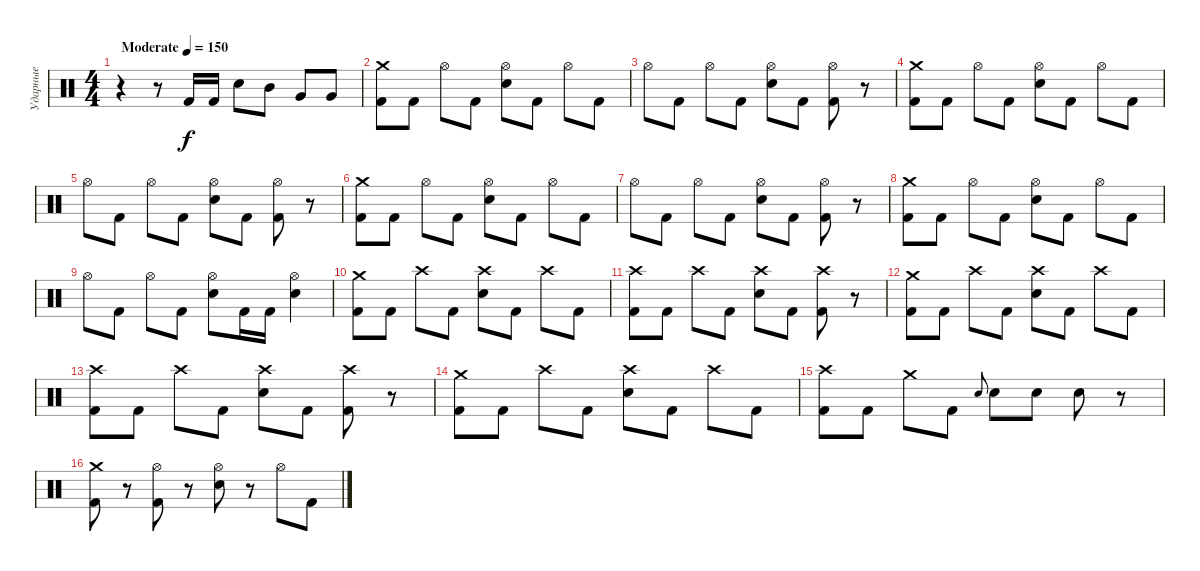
\track ("Ударные" "Ударные") {instrument percussion}
\staff {score}
\articulation defaults
\ts (4 4)
\tempo (150 "Moderate")
\clef neutral
\ks c
r.4{dy f} r.8 "Kick (hit) 2".16 "Kick (hit) 2".16 "Electric Snare (hit)".8 "Mid Tom (hit)".8 "Very Low Tom (hit)".8 "Very Low Tom (hit)".8 |
("Kick (hit) 2" "Crash medium (hit)").8 "Kick (hit) 2".8 "Hi-Hat (open)".8 "Kick (hit) 2".8 ("Electric Snare (hit)" "Hi-Hat (open)").8 "Kick (hit) 2".8 "Hi-Hat (open)".8 "Kick (hit) 2".8 |
"Hi-Hat (open)".8 "Kick (hit) 2".8 "Hi-Hat (open)".8 "Kick (hit) 2".8 ("Electric Snare (hit)" "Hi-Hat (open)").8 "Kick (hit) 2".8 ("Kick (hit) 2" "Hi-Hat (open)").8 r.8 |
("Kick (hit) 2" "Crash medium (hit)").8 "Kick (hit) 2".8 "Hi-Hat (open)".8 "Kick (hit) 2".8 ("Electric Snare (hit)" "Hi-Hat (open)").8 "Kick (hit) 2".8 "Hi-Hat (open)".8 "Kick (hit) 2".8 |
"Hi-Hat (open)".8 "Kick (hit) 2".8 "Hi-Hat (open)".8 "Kick (hit) 2".8 ("Electric Snare (hit)" "Hi-Hat (open)").8 "Kick (hit) 2".8 ("Kick (hit) 2" "Hi-Hat (open)").8 r.8 |
("Kick (hit) 2" "Crash medium (hit)").8 "Kick (hit) 2".8 "Hi-Hat (open)".8 "Kick (hit) 2".8 ("Electric Snare (hit)" "Hi-Hat (open)").8 "Kick (hit) 2".8 "Hi-Hat (open)".8 "Kick (hit) 2".8 |
"Hi-Hat (open)".8 "Kick (hit) 2".8 "Hi-Hat (open)".8 "Kick (hit) 2".8 ("Electric Snare (hit)" "Hi-Hat (open)").8 "Kick (hit) 2".8 ("Kick (hit) 2" "Hi-Hat (open)").8 r.8 |
("Kick (hit) 2" "Crash medium (hit)").8 "Kick (hit) 2".8 "Hi-Hat (open)".8 "Kick (hit) 2".8 ("Electric Snare (hit)" "Hi-Hat (open)").8 "Kick (hit) 2".8 "Hi-Hat (open)".8 "Kick (hit) 2".8 |
"Hi-Hat (open)".8 "Kick (hit) 2".8 "Hi-Hat (open)".8 "Kick (hit) 2".8 ("Electric Snare (hit)" "Hi-Hat (open)").8 "Kick (hit) 2".16 "Kick (hit) 2".16 ("Electric Snare (hit)" "Hi-Hat (open)").4 |
("Kick (hit) 2" "Crash medium (hit)").8 "Kick (hit) 2".8 "Crash high (hit)".8 "Kick (hit) 2".8 ("Electric Snare (hit)" "Crash high (hit)").8 "Kick (hit) 2".8 "Crash high (hit)".8 "Kick (hit) 2".8 |
("Kick (hit) 2" "Crash high (hit)").8 "Kick (hit) 2".8 "Crash high (hit)".8 "Kick (hit) 2".8 ("Electric Snare (hit)" "Crash high (hit)").8 "Kick (hit) 2".8 ("Kick (hit) 2" "Crash high (hit)").8 r.8 |
("Kick (hit) 2" "Crash medium (hit)").8 "Kick (hit) 2".8 "Crash high (hit)".8 "Kick (hit) 2".8 ("Electric Snare (hit)" "Crash high (hit)").8 "Kick (hit) 2".8 "Crash high (hit)".8 "Kick (hit) 2".8 |
("Kick (hit) 2" "Crash high (hit)").8 "Kick (hit) 2".8 "Crash high (hit)".8 "Kick (hit) 2".8 ("Electric Snare (hit)" "Crash high (hit)").8 "Kick (hit) 2".8 ("Kick (hit) 2" "Crash high (hit)").8 r.8 |
("Kick (hit) 2" "Crash medium (hit)").8 "Kick (hit) 2".8 "Crash high (hit)".8 "Kick (hit) 2".8 ("Electric Snare (hit)" "Crash high (hit)").8 "Kick (hit) 2".8 "Crash high (hit)".8 "Kick (hit) 2".8 |
("Kick (hit) 2" "Crash high (hit)").8 "Kick (hit) 2".8 "Crash medium (hit)".8 "Kick (hit) 2".8 "Electric Snare (hit)".8{gr onbeat} "Electric Snare (hit)".8 "Electric Snare (hit)".8 "Electric Snare (hit)".8 r.8 |
("Kick (hit) 2" "Crash medium (hit)").8 r.8 ("Kick (hit) 2" "Hi-Hat (open)").8 r.8 ("Electric Snare (hit)" "Hi-Hat (open)").8 r.8 "Hi-Hat (open)".8 "Kick (hit) 2".8
